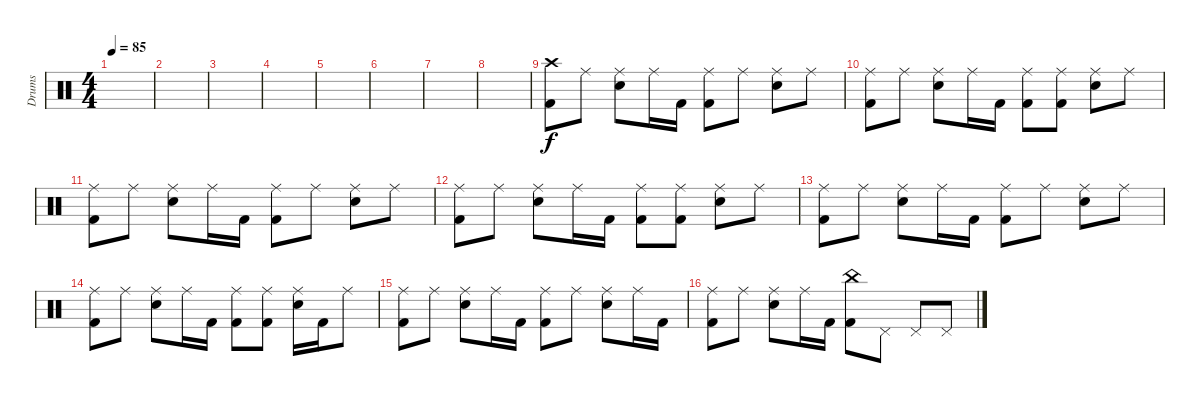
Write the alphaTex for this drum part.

\track ("Drums" "Drums") {instrument percussion}
\staff {score}
\articulation defaults
\ts (4 4)
\tempo 85
\clef neutral
\ks c
|
|
|
|
|
|
|
|
("Crash high (hit)" "Kick (hit) 2").8 "Ride (middle)".8 ("Ride (middle)" "Snare (hit) 2").8 "Ride (middle)".16 "Kick (hit) 2".16 ("Ride (middle)" "Kick (hit) 2").8 "Ride (middle)".8 ("Ride (middle)" "Snare (hit) 2").8 "Ride (middle)".8 |
("Ride (middle)" "Kick (hit) 2").8 "Ride (middle)".8 ("Ride (middle)" "Snare (hit) 2").8 "Ride (middle)".16 "Kick (hit) 2".16 ("Ride (middle)" "Kick (hit) 2").8 ("Ride (middle)" "Kick (hit) 2").8 ("Ride (middle)" "Snare (hit) 2").8 "Ride (middle)".8 |
("Ride (middle)" "Kick (hit) 2").8 "Ride (middle)".8 ("Ride (middle)" "Snare (hit) 2").8 "Ride (middle)".16 "Kick (hit) 2".16 ("Ride (middle)" "Kick (hit) 2").8 "Ride (middle)".8 ("Ride (middle)" "Snare (hit) 2").8 "Ride (middle)".8 |
("Ride (middle)" "Kick (hit) 2").8 "Ride (middle)".8 ("Ride (middle)" "Snare (hit) 2").8 "Ride (middle)".16 "Kick (hit) 2".16 ("Ride (middle)" "Kick (hit) 2").8 ("Ride (middle)" "Kick (hit) 2").8 ("Ride (middle)" "Snare (hit) 2").8 "Ride (middle)".8 |
("Ride (middle)" "Kick (hit) 2").8 "Ride (middle)".8 ("Ride (middle)" "Snare (hit) 2").8 "Ride (middle)".16 "Kick (hit) 2".16 ("Ride (middle)" "Kick (hit) 2").8 "Ride (middle)".8 ("Ride (middle)" "Snare (hit) 2").8 "Ride (middle)".8 |
("Ride (middle)" "Kick (hit) 2").8 "Ride (middle)".8 ("Ride (middle)" "Snare (hit) 2").8 "Ride (middle)".16 "Kick (hit) 2".16 ("Ride (middle)" "Kick (hit) 2").8 ("Ride (middle)" "Kick (hit) 2").8 ("Ride (middle)" "Snare (hit) 2").16 "Kick (hit) 2".16 "Ride (middle)".8 |
("Ride (middle)" "Kick (hit) 2").8 "Ride (middle)".8 ("Ride (middle)" "Snare (hit) 2").8 "Ride (middle)".16 "Kick (hit) 2".16 ("Ride (middle)" "Kick (hit) 2").8 "Ride (middle)".8 ("Ride (middle)" "Snare (hit) 2").8 "Ride (middle)".16 "Kick (hit) 2".16 |
("Ride (middle)" "Kick (hit) 2").8 "Ride (middle)".8 ("Ride (middle)" "Snare (hit) 2").8 "Ride (middle)".16 "Kick (hit) 2".16 ("China (hit)" "Kick (hit) 2").8 "Pedal Hi-Hat (hit)".8 "Pedal Hi-Hat (hit)".8 "Pedal Hi-Hat (hit)".8
